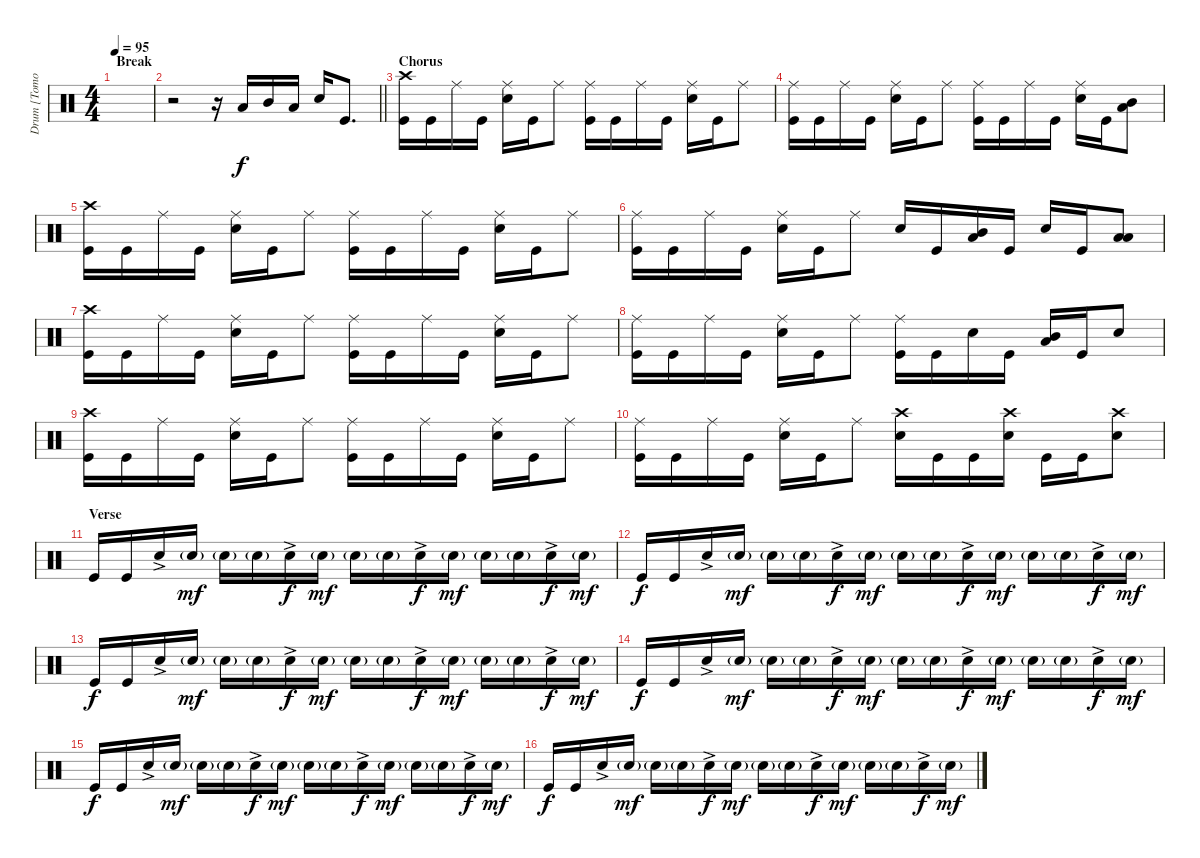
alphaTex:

\track ("Drum [Tomoya]" "Drum [Tomo") {instrument percussion}
\staff {score}
\articulation defaults
\ts (4 4)
\section ("" "Break")
\tempo 95
\clef neutral
\ks c
|
\barLineRight lightlight
r.2 r.16 "Low Tom (hit)".16 "Mid Tom (hit)".16 "Low Floor Tom (hit)".16 "Snare (hit) 2".16 "Kick (hit)".8{d} |
\section ("" "Chorus")
("Crash high (hit)" "Kick (hit)").16 "Kick (hit)".16 "Ride (middle)".16 "Kick (hit)".16 ("Ride (middle)" "Snare (hit) 2").16 "Kick (hit)".16 "Ride (middle)".8 ("Ride (middle)" "Kick (hit)").16 "Kick (hit)".16 "Ride (middle)".16 "Kick (hit)".16 ("Ride (middle)" "Snare (hit) 2").16 "Kick (hit)".16 "Ride (middle)".8 |
("Ride (middle)" "Kick (hit)").16 "Kick (hit)".16 "Ride (middle)".16 "Kick (hit)".16 ("Ride (middle)" "Snare (hit) 2").16 "Kick (hit)".16 "Ride (middle)".8 ("Ride (middle)" "Kick (hit)").16 "Kick (hit)".16 "Ride (middle)".16 "Kick (hit)".16 ("Ride (middle)" "Snare (hit) 2").16 "Kick (hit)".16 ("Mid Tom (hit)" "Low Tom (hit)").8 |
("Crash high (hit)" "Kick (hit)").16 "Kick (hit)".16 "Ride (middle)".16 "Kick (hit)".16 ("Ride (middle)" "Snare (hit) 2").16 "Kick (hit)".16 "Ride (middle)".8 ("Ride (middle)" "Kick (hit)").16 "Kick (hit)".16 "Ride (middle)".16 "Kick (hit)".16 ("Ride (middle)" "Snare (hit) 2").16 "Kick (hit)".16 "Ride (middle)".8 |
("Ride (middle)" "Kick (hit)").16 "Kick (hit)".16 "Ride (middle)".16 "Kick (hit)".16 ("Ride (middle)" "Snare (hit) 2").16 "Kick (hit)".16 "Ride (middle)".8 "Snare (hit) 2".16 "Kick (hit)".16 ("Low Tom (hit)" "Mid Tom (hit)").16 "Kick (hit)".16 "Snare (hit) 2".16 "Kick (hit)".16 ("Low Tom (hit)" "Low Floor Tom (hit)").8 |
("Crash high (hit)" "Kick (hit)").16 "Kick (hit)".16 "Ride (middle)".16 "Kick (hit)".16 ("Ride (middle)" "Snare (hit) 2").16 "Kick (hit)".16 "Ride (middle)".8 ("Ride (middle)" "Kick (hit)").16 "Kick (hit)".16 "Ride (middle)".16 "Kick (hit)".16 ("Ride (middle)" "Snare (hit) 2").16 "Kick (hit)".16 "Ride (middle)".8 |
("Ride (middle)" "Kick (hit)").16 "Kick (hit)".16 "Ride (middle)".16 "Kick (hit)".16 ("Ride (middle)" "Snare (hit) 2").16 "Kick (hit)".16 "Ride (middle)".8 ("Ride (middle)" "Kick (hit)").16 "Kick (hit)".16 "Snare (hit) 2".16 "Kick (hit)".16 ("Mid Tom (hit)" "Low Tom (hit)").16 "Kick (hit)".16 "Snare (hit) 2".8 |
("Crash high (hit)" "Kick (hit)").16 "Kick (hit)".16 "Ride (middle)".16 "Kick (hit)".16 ("Ride (middle)" "Snare (hit) 2").16 "Kick (hit)".16 "Ride (middle)".8 ("Ride (middle)" "Kick (hit)").16 "Kick (hit)".16 "Ride (middle)".16 "Kick (hit)".16 ("Ride (middle)" "Snare (hit) 2").16 "Kick (hit)".16 "Ride (middle)".8 |
("Ride (middle)" "Kick (hit)").16 "Kick (hit)".16 "Ride (middle)".16 "Kick (hit)".16 ("Ride (middle)" "Snare (hit) 2").16 "Kick (hit)".16 "Ride (middle)".8 ("Crash high (hit)" "Snare (hit) 2").16 "Kick (hit)".16 "Kick (hit)".16 ("Crash high (hit)" "Snare (hit) 2").16 "Kick (hit)".16 "Kick (hit)".16 ("Crash high (hit)" "Snare (hit) 2").8 |
\section ("" "Verse")
"Kick (hit)".16 "Kick (hit)".16 "Snare (hit) 2"{ac}.16 "Snare (hit) 2"{g}.16{dy mf} "Snare (hit) 2"{g}.16 "Snare (hit) 2"{g}.16 "Snare (hit) 2"{ac}.16{dy f} "Snare (hit) 2"{g}.16{dy mf} "Snare (hit) 2"{g}.16 "Snare (hit) 2"{g}.16 "Snare (hit) 2"{ac}.16{dy f} "Snare (hit) 2"{g}.16{dy mf} "Snare (hit) 2"{g}.16 "Snare (hit) 2"{g}.16 "Snare (hit) 2"{ac}.16{dy f} "Snare (hit) 2"{g}.16{dy mf} |
"Kick (hit)".16{dy f} "Kick (hit)".16 "Snare (hit) 2"{ac}.16 "Snare (hit) 2"{g}.16{dy mf} "Snare (hit) 2"{g}.16 "Snare (hit) 2"{g}.16 "Snare (hit) 2"{ac}.16{dy f} "Snare (hit) 2"{g}.16{dy mf} "Snare (hit) 2"{g}.16 "Snare (hit) 2"{g}.16 "Snare (hit) 2"{ac}.16{dy f} "Snare (hit) 2"{g}.16{dy mf} "Snare (hit) 2"{g}.16 "Snare (hit) 2"{g}.16 "Snare (hit) 2"{ac}.16{dy f} "Snare (hit) 2"{g}.16{dy mf} |
"Kick (hit)".16{dy f} "Kick (hit)".16 "Snare (hit) 2"{ac}.16 "Snare (hit) 2"{g}.16{dy mf} "Snare (hit) 2"{g}.16 "Snare (hit) 2"{g}.16 "Snare (hit) 2"{ac}.16{dy f} "Snare (hit) 2"{g}.16{dy mf} "Snare (hit) 2"{g}.16 "Snare (hit) 2"{g}.16 "Snare (hit) 2"{ac}.16{dy f} "Snare (hit) 2"{g}.16{dy mf} "Snare (hit) 2"{g}.16 "Snare (hit) 2"{g}.16 "Snare (hit) 2"{ac}.16{dy f} "Snare (hit) 2"{g}.16{dy mf} |
"Kick (hit)".16{dy f} "Kick (hit)".16 "Snare (hit) 2"{ac}.16 "Snare (hit) 2"{g}.16{dy mf} "Snare (hit) 2"{g}.16 "Snare (hit) 2"{g}.16 "Snare (hit) 2"{ac}.16{dy f} "Snare (hit) 2"{g}.16{dy mf} "Snare (hit) 2"{g}.16 "Snare (hit) 2"{g}.16 "Snare (hit) 2"{ac}.16{dy f} "Snare (hit) 2"{g}.16{dy mf} "Snare (hit) 2"{g}.16 "Snare (hit) 2"{g}.16 "Snare (hit) 2"{ac}.16{dy f} "Snare (hit) 2"{g}.16{dy mf} |
"Kick (hit)".16{dy f} "Kick (hit)".16 "Snare (hit) 2"{ac}.16 "Snare (hit) 2"{g}.16{dy mf} "Snare (hit) 2"{g}.16 "Snare (hit) 2"{g}.16 "Snare (hit) 2"{ac}.16{dy f} "Snare (hit) 2"{g}.16{dy mf} "Snare (hit) 2"{g}.16 "Snare (hit) 2"{g}.16 "Snare (hit) 2"{ac}.16{dy f} "Snare (hit) 2"{g}.16{dy mf} "Snare (hit) 2"{g}.16 "Snare (hit) 2"{g}.16 "Snare (hit) 2"{ac}.16{dy f} "Snare (hit) 2"{g}.16{dy mf} |
"Kick (hit)".16{dy f} "Kick (hit)".16 "Snare (hit) 2"{ac}.16 "Snare (hit) 2"{g}.16{dy mf} "Snare (hit) 2"{g}.16 "Snare (hit) 2"{g}.16 "Snare (hit) 2"{ac}.16{dy f} "Snare (hit) 2"{g}.16{dy mf} "Snare (hit) 2"{g}.16 "Snare (hit) 2"{g}.16 "Snare (hit) 2"{ac}.16{dy f} "Snare (hit) 2"{g}.16{dy mf} "Snare (hit) 2"{g}.16 "Snare (hit) 2"{g}.16 "Snare (hit) 2"{ac}.16{dy f} "Snare (hit) 2"{g}.16{dy mf}
